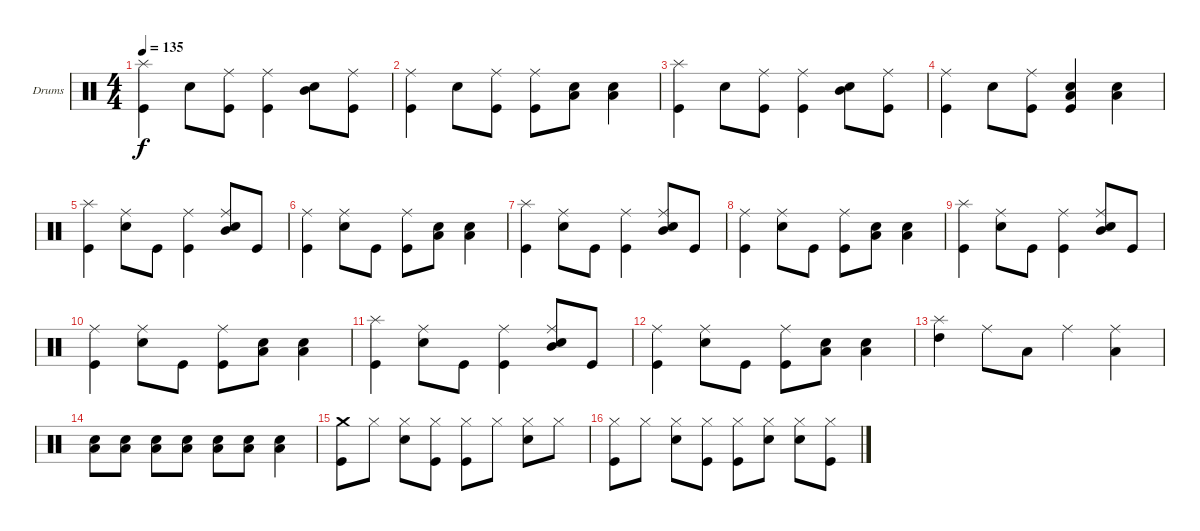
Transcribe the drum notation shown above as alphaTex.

\defaultSystemsLayout 4
\bracketExtendMode groupsimilarinstruments
\firstSystemTrackNameOrientation horizontal
\otherSystemsTrackNameOrientation horizontal
\track ("Барабаны" "Drums") {instrument percussion}
\staff {score}
\articulation defaults
\ts (4 4)
\tempo 135
\clef neutral
\scale
0.474178
\ks c
("Splash (hit)" "Kick (hit)").4{dy f} "Snare (hit) 2".8 ("Ride (middle)" "Kick (hit)").8 ("Ride (middle)" "Kick (hit)").4 ("Mid Tom (hit)" "Snare (hit) 2").8 ("Ride (middle)" "Kick (hit)").8 |
\scale
0.262911 ("Ride (middle)" "Kick (hit)").4 "Snare (hit) 2".8 ("Ride (middle)" "Kick (hit)").8 ("Ride (middle)" "Kick (hit)").8 ("Low Tom (hit)" "Snare (hit) 2").8 ("Low Tom (hit)" "Snare (hit) 2").4 |
\scale
0.262911 ("Splash (hit)" "Kick (hit)").4 "Snare (hit) 2".8 ("Ride (middle)" "Kick (hit)").8 ("Ride (middle)" "Kick (hit)").4 ("Mid Tom (hit)" "Snare (hit) 2").8 ("Ride (middle)" "Kick (hit)").8 |
\scale
0.333333 ("Ride (middle)" "Kick (hit)").4 "Snare (hit) 2".8 ("Ride (middle)" "Kick (hit)").8 ("Low Tom (hit)" "Snare (hit) 2" "Kick (hit)").4 ("Low Tom (hit)" "Snare (hit) 2").4 |
\scale
0.333333 ("Splash (hit)" "Kick (hit)").4 ("Ride (middle)" "Snare (hit) 2").8 "Kick (hit)".8 ("Ride (middle)" "Kick (hit)").4 ("Ride (middle)" "Mid Tom (hit)" "Snare (hit) 2").8 "Kick (hit)".8 |
\scale
0.333333 ("Ride (middle)" "Kick (hit)").4 ("Ride (middle)" "Snare (hit) 2").8 "Kick (hit)".8 ("Ride (middle)" "Kick (hit)").8 ("Low Tom (hit)" "Snare (hit) 2").8 ("Low Tom (hit)" "Snare (hit) 2").4 |
\scale
0.333333 ("Splash (hit)" "Kick (hit)").4 ("Ride (middle)" "Snare (hit) 2").8 "Kick (hit)".8 ("Ride (middle)" "Kick (hit)").4 ("Ride (middle)" "Mid Tom (hit)" "Snare (hit) 2").8 "Kick (hit)".8 |
\scale
0.333333 ("Ride (middle)" "Kick (hit)").4 ("Ride (middle)" "Snare (hit) 2").8 "Kick (hit)".8 ("Ride (middle)" "Kick (hit)").8 ("Low Tom (hit)" "Snare (hit) 2").8 ("Low Tom (hit)" "Snare (hit) 2").4 |
\scale
0.333333 ("Splash (hit)" "Kick (hit)").4 ("Ride (middle)" "Snare (hit) 2").8 "Kick (hit)".8 ("Ride (middle)" "Kick (hit)").4 ("Ride (middle)" "Mid Tom (hit)" "Snare (hit) 2").8 "Kick (hit)".8 |
\scale
0.333333 ("Ride (middle)" "Kick (hit)").4 ("Ride (middle)" "Snare (hit) 2").8 "Kick (hit)".8 ("Ride (middle)" "Kick (hit)").8 ("Low Tom (hit)" "Snare (hit) 2").8 ("Low Tom (hit)" "Snare (hit) 2").4 |
\scale
0.333333 ("Splash (hit)" "Kick (hit)").4 ("Ride (middle)" "Snare (hit) 2").8 "Kick (hit)".8 ("Ride (middle)" "Kick (hit)").4 ("Ride (middle)" "Mid Tom (hit)" "Snare (hit) 2").8 "Kick (hit)".8 |
\scale
0.333333 ("Ride (middle)" "Kick (hit)").4 ("Ride (middle)" "Snare (hit) 2").8 "Kick (hit)".8 ("Ride (middle)" "Kick (hit)").8 ("Low Tom (hit)" "Snare (hit) 2").8 ("Low Tom (hit)" "Snare (hit) 2").4 |
\scale
0.333333 ("Splash (hit)" "High Tom (hit)").4 "Ride (middle)".8 "Low Tom (hit)".8 "Ride (middle)".4 ("Ride (middle)" "Low Tom (hit)").4 |
\scale
0.333333 ("Low Tom (hit)" "Snare (hit) 2").8 ("Low Tom (hit)" "Snare (hit) 2").8 ("Low Tom (hit)" "Snare (hit) 2").8 ("Low Tom (hit)" "Snare (hit) 2").8 ("Low Tom (hit)" "Snare (hit) 2").8 ("Low Tom (hit)" "Snare (hit) 2").8 ("Low Tom (hit)" "Snare (hit) 2").4 |
\scale
0.333333 ("Crash medium (hit)" "Kick (hit)").8 "Hi-Hat (closed)".8 ("Hi-Hat (closed)" "Snare (hit) 2").8 ("Hi-Hat (closed)" "Kick (hit)").8 ("Hi-Hat (closed)" "Kick (hit)").8 "Hi-Hat (closed)".8 ("Hi-Hat (closed)" "Snare (hit) 2").8 "Hi-Hat (closed)".8 |
\scale
0.333333 ("Hi-Hat (closed)" "Kick (hit)").8 "Hi-Hat (closed)".8 ("Hi-Hat (closed)" "Snare (hit) 2").8 ("Hi-Hat (closed)" "Kick (hit)").8 ("Hi-Hat (closed)" "Kick (hit)").8 ("Hi-Hat (closed)" "Snare (hit) 2").8 ("Hi-Hat (closed)" "Snare (hit) 2").8 ("Hi-Hat (closed)" "Kick (hit)").8
